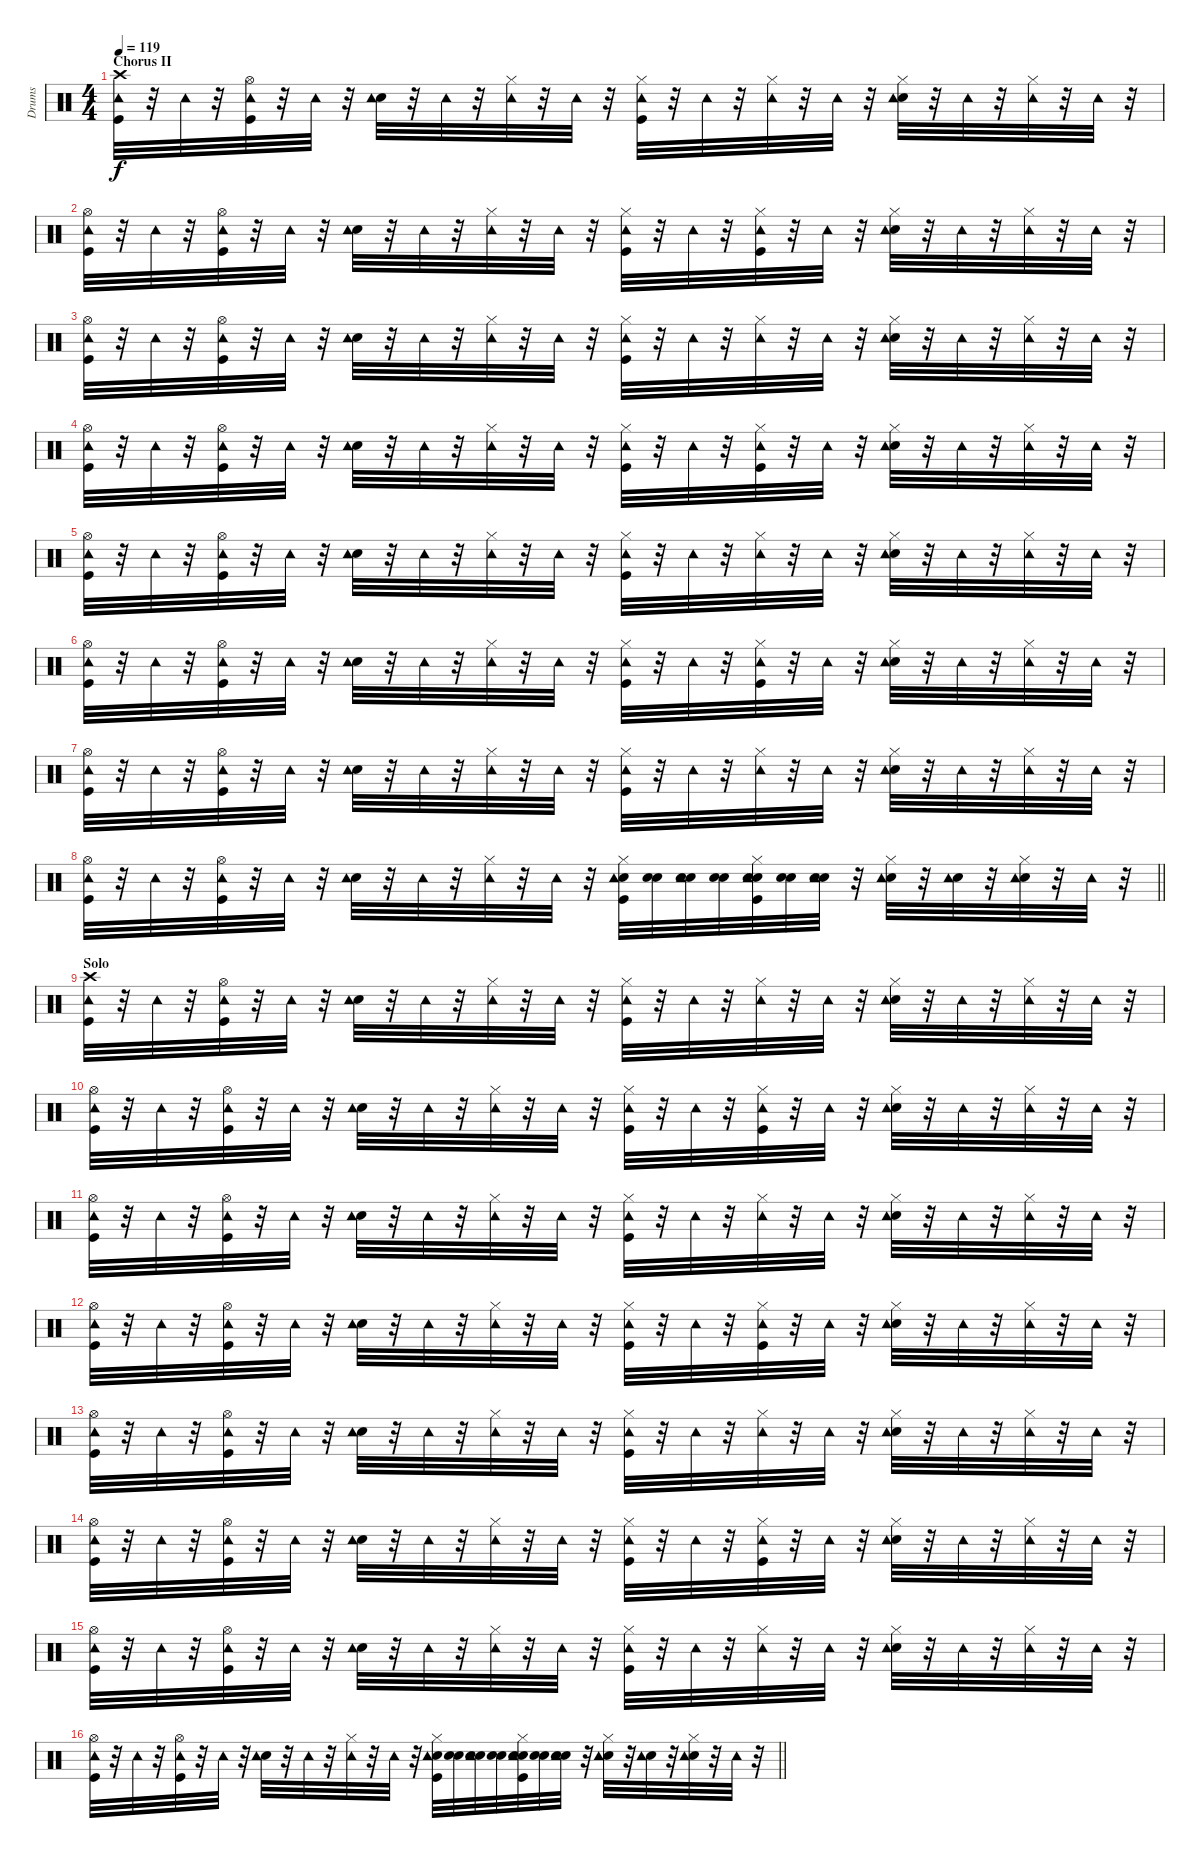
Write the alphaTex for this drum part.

\track ("Drums" "Drums") {instrument percussion}
\staff {score}
\articulation defaults
\ts (4 4)
\section ("" "Chorus II")
\tempo 119
\clef neutral
\ks c
("Kick (hit)" "Crash high (hit)" "Tambourine (hit)").32{dy f} r.32 "Tambourine (hit)".32 r.32 ("Kick (hit)" "Hi-Hat (open)" "Tambourine (hit)").32 r.32 "Tambourine (hit)".32 r.32 ("Electric Snare (hit)" "Tambourine (hit)").32 r.32 "Tambourine (hit)".32 r.32 ("Hi-Hat (closed)" "Tambourine (hit)").32 r.32 "Tambourine (hit)".32 r.32 ("Kick (hit)" "Hi-Hat (closed)" "Tambourine (hit)").32 r.32 "Tambourine (hit)".32 r.32 ("Hi-Hat (closed)" "Tambourine (hit)").32 r.32 "Tambourine (hit)".32 r.32 ("Electric Snare (hit)" "Hi-Hat (closed)" "Tambourine (hit)").32 r.32 "Tambourine (hit)".32 r.32 ("Hi-Hat (closed)" "Tambourine (hit)").32 r.32 "Tambourine (hit)".32 r.32 |
("Kick (hit)" "Hi-Hat (open)" "Tambourine (hit)").32 r.32 "Tambourine (hit)".32 r.32 ("Kick (hit)" "Hi-Hat (open)" "Tambourine (hit)").32 r.32 "Tambourine (hit)".32 r.32 ("Electric Snare (hit)" "Tambourine (hit)").32 r.32 "Tambourine (hit)".32 r.32 ("Hi-Hat (closed)" "Tambourine (hit)").32 r.32 "Tambourine (hit)".32 r.32 ("Kick (hit)" "Hi-Hat (closed)" "Tambourine (hit)").32 r.32 "Tambourine (hit)".32 r.32 ("Kick (hit)" "Hi-Hat (closed)" "Tambourine (hit)").32 r.32 "Tambourine (hit)".32 r.32 ("Electric Snare (hit)" "Hi-Hat (closed)" "Tambourine (hit)").32 r.32 "Tambourine (hit)".32 r.32 ("Hi-Hat (closed)" "Tambourine (hit)").32 r.32 "Tambourine (hit)".32 r.32 |
("Kick (hit)" "Hi-Hat (open)" "Tambourine (hit)").32 r.32 "Tambourine (hit)".32 r.32 ("Kick (hit)" "Hi-Hat (open)" "Tambourine (hit)").32 r.32 "Tambourine (hit)".32 r.32 ("Electric Snare (hit)" "Tambourine (hit)").32 r.32 "Tambourine (hit)".32 r.32 ("Hi-Hat (closed)" "Tambourine (hit)").32 r.32 "Tambourine (hit)".32 r.32 ("Kick (hit)" "Hi-Hat (closed)" "Tambourine (hit)").32 r.32 "Tambourine (hit)".32 r.32 ("Hi-Hat (closed)" "Tambourine (hit)").32 r.32 "Tambourine (hit)".32 r.32 ("Electric Snare (hit)" "Hi-Hat (closed)" "Tambourine (hit)").32 r.32 "Tambourine (hit)".32 r.32 ("Hi-Hat (closed)" "Tambourine (hit)").32 r.32 "Tambourine (hit)".32 r.32 |
("Kick (hit)" "Hi-Hat (open)" "Tambourine (hit)").32 r.32 "Tambourine (hit)".32 r.32 ("Kick (hit)" "Hi-Hat (open)" "Tambourine (hit)").32 r.32 "Tambourine (hit)".32 r.32 ("Electric Snare (hit)" "Tambourine (hit)").32 r.32 "Tambourine (hit)".32 r.32 ("Hi-Hat (closed)" "Tambourine (hit)").32 r.32 "Tambourine (hit)".32 r.32 ("Kick (hit)" "Hi-Hat (closed)" "Tambourine (hit)").32 r.32 "Tambourine (hit)".32 r.32 ("Kick (hit)" "Hi-Hat (closed)" "Tambourine (hit)").32 r.32 "Tambourine (hit)".32 r.32 ("Electric Snare (hit)" "Hi-Hat (closed)" "Tambourine (hit)").32 r.32 "Tambourine (hit)".32 r.32 ("Hi-Hat (closed)" "Tambourine (hit)").32 r.32 "Tambourine (hit)".32 r.32 |
("Kick (hit)" "Hi-Hat (open)" "Tambourine (hit)").32 r.32 "Tambourine (hit)".32 r.32 ("Kick (hit)" "Hi-Hat (open)" "Tambourine (hit)").32 r.32 "Tambourine (hit)".32 r.32 ("Electric Snare (hit)" "Tambourine (hit)").32 r.32 "Tambourine (hit)".32 r.32 ("Hi-Hat (closed)" "Tambourine (hit)").32 r.32 "Tambourine (hit)".32 r.32 ("Kick (hit)" "Hi-Hat (closed)" "Tambourine (hit)").32 r.32 "Tambourine (hit)".32 r.32 ("Hi-Hat (closed)" "Tambourine (hit)").32 r.32 "Tambourine (hit)".32 r.32 ("Electric Snare (hit)" "Hi-Hat (closed)" "Tambourine (hit)").32 r.32 "Tambourine (hit)".32 r.32 ("Hi-Hat (closed)" "Tambourine (hit)").32 r.32 "Tambourine (hit)".32 r.32 |
("Kick (hit)" "Hi-Hat (open)" "Tambourine (hit)").32 r.32 "Tambourine (hit)".32 r.32 ("Kick (hit)" "Hi-Hat (open)" "Tambourine (hit)").32 r.32 "Tambourine (hit)".32 r.32 ("Electric Snare (hit)" "Tambourine (hit)").32 r.32 "Tambourine (hit)".32 r.32 ("Hi-Hat (closed)" "Tambourine (hit)").32 r.32 "Tambourine (hit)".32 r.32 ("Kick (hit)" "Hi-Hat (closed)" "Tambourine (hit)").32 r.32 "Tambourine (hit)".32 r.32 ("Kick (hit)" "Hi-Hat (closed)" "Tambourine (hit)").32 r.32 "Tambourine (hit)".32 r.32 ("Electric Snare (hit)" "Hi-Hat (closed)" "Tambourine (hit)").32 r.32 "Tambourine (hit)".32 r.32 ("Hi-Hat (closed)" "Tambourine (hit)").32 r.32 "Tambourine (hit)".32 r.32 |
("Kick (hit)" "Hi-Hat (open)" "Tambourine (hit)").32 r.32 "Tambourine (hit)".32 r.32 ("Kick (hit)" "Hi-Hat (open)" "Tambourine (hit)").32 r.32 "Tambourine (hit)".32 r.32 ("Electric Snare (hit)" "Tambourine (hit)").32 r.32 "Tambourine (hit)".32 r.32 ("Hi-Hat (closed)" "Tambourine (hit)").32 r.32 "Tambourine (hit)".32 r.32 ("Kick (hit)" "Hi-Hat (closed)" "Tambourine (hit)").32 r.32 "Tambourine (hit)".32 r.32 ("Hi-Hat (closed)" "Tambourine (hit)").32 r.32 "Tambourine (hit)".32 r.32 ("Electric Snare (hit)" "Hi-Hat (closed)" "Tambourine (hit)").32 r.32 "Tambourine (hit)".32 r.32 ("Hi-Hat (closed)" "Tambourine (hit)").32 r.32 "Tambourine (hit)".32 r.32 |
\barLineRight lightlight
("Kick (hit)" "Hi-Hat (open)" "Tambourine (hit)").32 r.32 "Tambourine (hit)".32 r.32 ("Kick (hit)" "Hi-Hat (open)" "Tambourine (hit)").32 r.32 "Tambourine (hit)".32 r.32 ("Electric Snare (hit)" "Tambourine (hit)").32 r.32 "Tambourine (hit)".32 r.32 ("Hi-Hat (closed)" "Tambourine (hit)").32 r.32 "Tambourine (hit)".32 r.32 ("Kick (hit)" "Electric Snare (hit)" "Hi-Hat (closed)" "Tambourine (hit)").32 ("Snare (hit)" "Electric Snare (hit)").32 ("Snare (hit)" "Electric Snare (hit)" "Tambourine (hit)").32 ("Snare (hit)" "Electric Snare (hit)").32 ("Snare (hit)" "Kick (hit)" "Electric Snare (hit)" "Hi-Hat (closed)" "Tambourine (hit)").32 ("Snare (hit)" "Electric Snare (hit)").32 ("Snare (hit)" "Electric Snare (hit)" "Tambourine (hit)").32 r.32 ("Electric Snare (hit)" "Hi-Hat (closed)" "Tambourine (hit)").32 r.32 ("Electric Snare (hit)" "Tambourine (hit)").32 r.32 ("Electric Snare (hit)" "Hi-Hat (closed)" "Tambourine (hit)").32 r.32 "Tambourine (hit)".32 r.32 |
\section ("" "Solo")
("Kick (hit)" "Crash high (hit)" "Tambourine (hit)").32 r.32 "Tambourine (hit)".32 r.32 ("Kick (hit)" "Hi-Hat (open)" "Tambourine (hit)").32 r.32 "Tambourine (hit)".32 r.32 ("Electric Snare (hit)" "Tambourine (hit)").32 r.32 "Tambourine (hit)".32 r.32 ("Hi-Hat (closed)" "Tambourine (hit)").32 r.32 "Tambourine (hit)".32 r.32 ("Kick (hit)" "Hi-Hat (closed)" "Tambourine (hit)").32 r.32 "Tambourine (hit)".32 r.32 ("Hi-Hat (closed)" "Tambourine (hit)").32 r.32 "Tambourine (hit)".32 r.32 ("Electric Snare (hit)" "Hi-Hat (closed)" "Tambourine (hit)").32 r.32 "Tambourine (hit)".32 r.32 ("Hi-Hat (closed)" "Tambourine (hit)").32 r.32 "Tambourine (hit)".32 r.32 |
("Kick (hit)" "Hi-Hat (open)" "Tambourine (hit)").32 r.32 "Tambourine (hit)".32 r.32 ("Kick (hit)" "Hi-Hat (open)" "Tambourine (hit)").32 r.32 "Tambourine (hit)".32 r.32 ("Electric Snare (hit)" "Tambourine (hit)").32 r.32 "Tambourine (hit)".32 r.32 ("Hi-Hat (closed)" "Tambourine (hit)").32 r.32 "Tambourine (hit)".32 r.32 ("Kick (hit)" "Hi-Hat (closed)" "Tambourine (hit)").32 r.32 "Tambourine (hit)".32 r.32 ("Kick (hit)" "Hi-Hat (closed)" "Tambourine (hit)").32 r.32 "Tambourine (hit)".32 r.32 ("Electric Snare (hit)" "Hi-Hat (closed)" "Tambourine (hit)").32 r.32 "Tambourine (hit)".32 r.32 ("Hi-Hat (closed)" "Tambourine (hit)").32 r.32 "Tambourine (hit)".32 r.32 |
("Kick (hit)" "Hi-Hat (open)" "Tambourine (hit)").32 r.32 "Tambourine (hit)".32 r.32 ("Kick (hit)" "Hi-Hat (open)" "Tambourine (hit)").32 r.32 "Tambourine (hit)".32 r.32 ("Electric Snare (hit)" "Tambourine (hit)").32 r.32 "Tambourine (hit)".32 r.32 ("Hi-Hat (closed)" "Tambourine (hit)").32 r.32 "Tambourine (hit)".32 r.32 ("Kick (hit)" "Hi-Hat (closed)" "Tambourine (hit)").32 r.32 "Tambourine (hit)".32 r.32 ("Hi-Hat (closed)" "Tambourine (hit)").32 r.32 "Tambourine (hit)".32 r.32 ("Electric Snare (hit)" "Hi-Hat (closed)" "Tambourine (hit)").32 r.32 "Tambourine (hit)".32 r.32 ("Hi-Hat (closed)" "Tambourine (hit)").32 r.32 "Tambourine (hit)".32 r.32 |
("Kick (hit)" "Hi-Hat (open)" "Tambourine (hit)").32 r.32 "Tambourine (hit)".32 r.32 ("Kick (hit)" "Hi-Hat (open)" "Tambourine (hit)").32 r.32 "Tambourine (hit)".32 r.32 ("Electric Snare (hit)" "Tambourine (hit)").32 r.32 "Tambourine (hit)".32 r.32 ("Hi-Hat (closed)" "Tambourine (hit)").32 r.32 "Tambourine (hit)".32 r.32 ("Kick (hit)" "Hi-Hat (closed)" "Tambourine (hit)").32 r.32 "Tambourine (hit)".32 r.32 ("Kick (hit)" "Hi-Hat (closed)" "Tambourine (hit)").32 r.32 "Tambourine (hit)".32 r.32 ("Electric Snare (hit)" "Hi-Hat (closed)" "Tambourine (hit)").32 r.32 "Tambourine (hit)".32 r.32 ("Hi-Hat (closed)" "Tambourine (hit)").32 r.32 "Tambourine (hit)".32 r.32 |
("Kick (hit)" "Hi-Hat (open)" "Tambourine (hit)").32 r.32 "Tambourine (hit)".32 r.32 ("Kick (hit)" "Hi-Hat (open)" "Tambourine (hit)").32 r.32 "Tambourine (hit)".32 r.32 ("Electric Snare (hit)" "Tambourine (hit)").32 r.32 "Tambourine (hit)".32 r.32 ("Hi-Hat (closed)" "Tambourine (hit)").32 r.32 "Tambourine (hit)".32 r.32 ("Kick (hit)" "Hi-Hat (closed)" "Tambourine (hit)").32 r.32 "Tambourine (hit)".32 r.32 ("Hi-Hat (closed)" "Tambourine (hit)").32 r.32 "Tambourine (hit)".32 r.32 ("Electric Snare (hit)" "Hi-Hat (closed)" "Tambourine (hit)").32 r.32 "Tambourine (hit)".32 r.32 ("Hi-Hat (closed)" "Tambourine (hit)").32 r.32 "Tambourine (hit)".32 r.32 |
("Kick (hit)" "Hi-Hat (open)" "Tambourine (hit)").32 r.32 "Tambourine (hit)".32 r.32 ("Kick (hit)" "Hi-Hat (open)" "Tambourine (hit)").32 r.32 "Tambourine (hit)".32 r.32 ("Electric Snare (hit)" "Tambourine (hit)").32 r.32 "Tambourine (hit)".32 r.32 ("Hi-Hat (closed)" "Tambourine (hit)").32 r.32 "Tambourine (hit)".32 r.32 ("Kick (hit)" "Hi-Hat (closed)" "Tambourine (hit)").32 r.32 "Tambourine (hit)".32 r.32 ("Kick (hit)" "Hi-Hat (closed)" "Tambourine (hit)").32 r.32 "Tambourine (hit)".32 r.32 ("Electric Snare (hit)" "Hi-Hat (closed)" "Tambourine (hit)").32 r.32 "Tambourine (hit)".32 r.32 ("Hi-Hat (closed)" "Tambourine (hit)").32 r.32 "Tambourine (hit)".32 r.32 |
("Kick (hit)" "Hi-Hat (open)" "Tambourine (hit)").32 r.32 "Tambourine (hit)".32 r.32 ("Kick (hit)" "Hi-Hat (open)" "Tambourine (hit)").32 r.32 "Tambourine (hit)".32 r.32 ("Electric Snare (hit)" "Tambourine (hit)").32 r.32 "Tambourine (hit)".32 r.32 ("Hi-Hat (closed)" "Tambourine (hit)").32 r.32 "Tambourine (hit)".32 r.32 ("Kick (hit)" "Hi-Hat (closed)" "Tambourine (hit)").32 r.32 "Tambourine (hit)".32 r.32 ("Hi-Hat (closed)" "Tambourine (hit)").32 r.32 "Tambourine (hit)".32 r.32 ("Electric Snare (hit)" "Hi-Hat (closed)" "Tambourine (hit)").32 r.32 "Tambourine (hit)".32 r.32 ("Hi-Hat (closed)" "Tambourine (hit)").32 r.32 "Tambourine (hit)".32 r.32 |
\barLineRight lightlight
("Kick (hit)" "Hi-Hat (open)" "Tambourine (hit)").32 r.32 "Tambourine (hit)".32 r.32 ("Kick (hit)" "Hi-Hat (open)" "Tambourine (hit)").32 r.32 "Tambourine (hit)".32 r.32 ("Electric Snare (hit)" "Tambourine (hit)").32 r.32 "Tambourine (hit)".32 r.32 ("Hi-Hat (closed)" "Tambourine (hit)").32 r.32 "Tambourine (hit)".32 r.32 ("Kick (hit)" "Electric Snare (hit)" "Hi-Hat (closed)" "Tambourine (hit)").32 ("Snare (hit)" "Electric Snare (hit)").32 ("Snare (hit)" "Electric Snare (hit)" "Tambourine (hit)").32 ("Snare (hit)" "Electric Snare (hit)").32 ("Snare (hit)" "Kick (hit)" "Electric Snare (hit)" "Hi-Hat (closed)" "Tambourine (hit)").32 ("Snare (hit)" "Electric Snare (hit)").32 ("Snare (hit)" "Electric Snare (hit)" "Tambourine (hit)").32 r.32 ("Electric Snare (hit)" "Hi-Hat (closed)" "Tambourine (hit)").32 r.32 ("Electric Snare (hit)" "Tambourine (hit)").32 r.32 ("Electric Snare (hit)" "Hi-Hat (closed)" "Tambourine (hit)").32 r.32 "Tambourine (hit)".32 r.32
